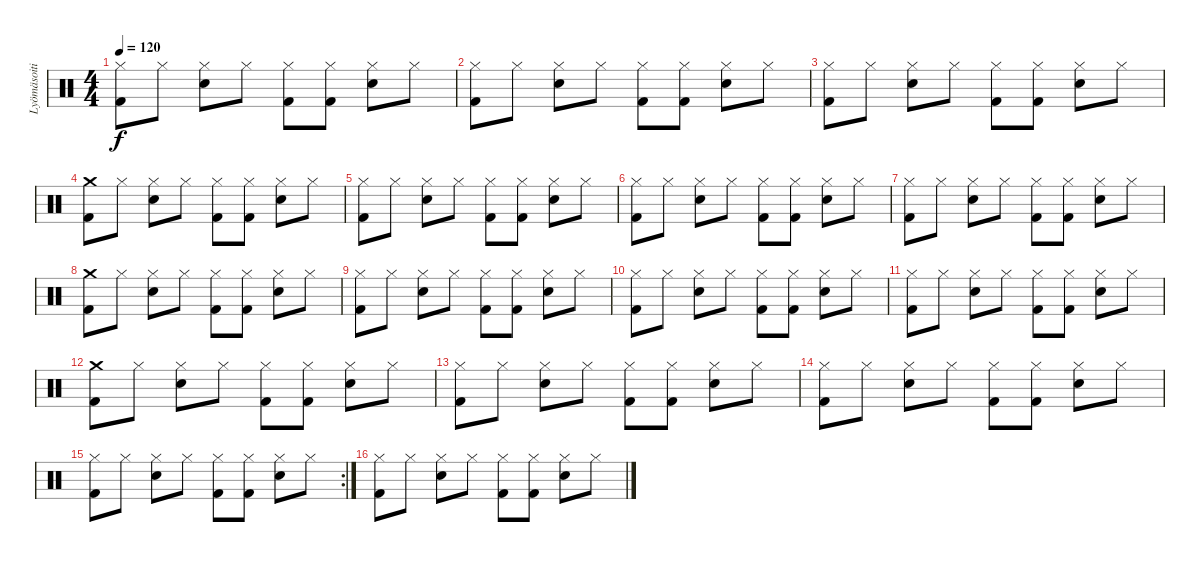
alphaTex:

\track ("Lyömäsoitin" "Lyömäsoiti") {instrument percussion}
\staff {score}
\articulation defaults
\ts (4 4)
\tempo 120
\clef neutral
\ks c
("Hi-Hat (closed)" "Kick (hit) 2").8{dy f} "Hi-Hat (closed)".8 ("Hi-Hat (closed)" "Electric Snare (hit)").8 "Hi-Hat (closed)".8 ("Hi-Hat (closed)" "Kick (hit) 2").8 ("Hi-Hat (closed)" "Kick (hit) 2").8 ("Hi-Hat (closed)" "Electric Snare (hit)").8 "Hi-Hat (closed)".8 |
("Hi-Hat (closed)" "Kick (hit) 2").8 "Hi-Hat (closed)".8 ("Hi-Hat (closed)" "Electric Snare (hit)").8 "Hi-Hat (closed)".8 ("Hi-Hat (closed)" "Kick (hit) 2").8 ("Hi-Hat (closed)" "Kick (hit) 2").8 ("Hi-Hat (closed)" "Electric Snare (hit)").8 "Hi-Hat (closed)".8 |
("Hi-Hat (closed)" "Kick (hit) 2").8 "Hi-Hat (closed)".8 ("Hi-Hat (closed)" "Electric Snare (hit)").8 "Hi-Hat (closed)".8 ("Hi-Hat (closed)" "Kick (hit) 2").8 ("Hi-Hat (closed)" "Kick (hit) 2").8 ("Hi-Hat (closed)" "Electric Snare (hit)").8 "Hi-Hat (closed)".8 |
("Crash medium (hit)" "Kick (hit) 2").8 "Hi-Hat (closed)".8 ("Hi-Hat (closed)" "Electric Snare (hit)").8 "Hi-Hat (closed)".8 ("Hi-Hat (closed)" "Kick (hit) 2").8 ("Hi-Hat (closed)" "Kick (hit) 2").8 ("Hi-Hat (closed)" "Electric Snare (hit)").8 "Hi-Hat (closed)".8 |
("Hi-Hat (closed)" "Kick (hit) 2").8 "Hi-Hat (closed)".8 ("Hi-Hat (closed)" "Electric Snare (hit)").8 "Hi-Hat (closed)".8 ("Hi-Hat (closed)" "Kick (hit) 2").8 ("Hi-Hat (closed)" "Kick (hit) 2").8 ("Hi-Hat (closed)" "Electric Snare (hit)").8 "Hi-Hat (closed)".8 |
("Hi-Hat (closed)" "Kick (hit) 2").8 "Hi-Hat (closed)".8 ("Hi-Hat (closed)" "Electric Snare (hit)").8 "Hi-Hat (closed)".8 ("Hi-Hat (closed)" "Kick (hit) 2").8 ("Hi-Hat (closed)" "Kick (hit) 2").8 ("Hi-Hat (closed)" "Electric Snare (hit)").8 "Hi-Hat (closed)".8 |
("Hi-Hat (closed)" "Kick (hit) 2").8 "Hi-Hat (closed)".8 ("Hi-Hat (closed)" "Electric Snare (hit)").8 "Hi-Hat (closed)".8 ("Hi-Hat (closed)" "Kick (hit) 2").8 ("Hi-Hat (closed)" "Kick (hit) 2").8 ("Hi-Hat (closed)" "Electric Snare (hit)").8 "Hi-Hat (closed)".8 |
("Crash medium (hit)" "Kick (hit) 2").8 "Hi-Hat (closed)".8 ("Hi-Hat (closed)" "Electric Snare (hit)").8 "Hi-Hat (closed)".8 ("Hi-Hat (closed)" "Kick (hit) 2").8 ("Hi-Hat (closed)" "Kick (hit) 2").8 ("Hi-Hat (closed)" "Electric Snare (hit)").8 "Hi-Hat (closed)".8 |
("Hi-Hat (closed)" "Kick (hit) 2").8 "Hi-Hat (closed)".8 ("Hi-Hat (closed)" "Electric Snare (hit)").8 "Hi-Hat (closed)".8 ("Hi-Hat (closed)" "Kick (hit) 2").8 ("Hi-Hat (closed)" "Kick (hit) 2").8 ("Hi-Hat (closed)" "Electric Snare (hit)").8 "Hi-Hat (closed)".8 |
("Hi-Hat (closed)" "Kick (hit) 2").8 "Hi-Hat (closed)".8 ("Hi-Hat (closed)" "Electric Snare (hit)").8 "Hi-Hat (closed)".8 ("Hi-Hat (closed)" "Kick (hit) 2").8 ("Hi-Hat (closed)" "Kick (hit) 2").8 ("Hi-Hat (closed)" "Electric Snare (hit)").8 "Hi-Hat (closed)".8 |
("Hi-Hat (closed)" "Kick (hit) 2").8 "Hi-Hat (closed)".8 ("Hi-Hat (closed)" "Electric Snare (hit)").8 "Hi-Hat (closed)".8 ("Hi-Hat (closed)" "Kick (hit) 2").8 ("Hi-Hat (closed)" "Kick (hit) 2").8 ("Hi-Hat (closed)" "Electric Snare (hit)").8 "Hi-Hat (closed)".8 |
("Crash medium (hit)" "Kick (hit) 2").8 "Hi-Hat (closed)".8 ("Hi-Hat (closed)" "Electric Snare (hit)").8 "Hi-Hat (closed)".8 ("Hi-Hat (closed)" "Kick (hit) 2").8 ("Hi-Hat (closed)" "Kick (hit) 2").8 ("Hi-Hat (closed)" "Electric Snare (hit)").8 "Hi-Hat (closed)".8 |
("Hi-Hat (closed)" "Kick (hit) 2").8 "Hi-Hat (closed)".8 ("Hi-Hat (closed)" "Electric Snare (hit)").8 "Hi-Hat (closed)".8 ("Hi-Hat (closed)" "Kick (hit) 2").8 ("Hi-Hat (closed)" "Kick (hit) 2").8 ("Hi-Hat (closed)" "Electric Snare (hit)").8 "Hi-Hat (closed)".8 |
("Hi-Hat (closed)" "Kick (hit) 2").8 "Hi-Hat (closed)".8 ("Hi-Hat (closed)" "Electric Snare (hit)").8 "Hi-Hat (closed)".8 ("Hi-Hat (closed)" "Kick (hit) 2").8 ("Hi-Hat (closed)" "Kick (hit) 2").8 ("Hi-Hat (closed)" "Electric Snare (hit)").8 "Hi-Hat (closed)".8 |
\rc 2
("Hi-Hat (closed)" "Kick (hit) 2").8 "Hi-Hat (closed)".8 ("Hi-Hat (closed)" "Electric Snare (hit)").8 "Hi-Hat (closed)".8 ("Hi-Hat (closed)" "Kick (hit) 2").8 ("Hi-Hat (closed)" "Kick (hit) 2").8 ("Hi-Hat (closed)" "Electric Snare (hit)").8 "Hi-Hat (closed)".8 |
("Hi-Hat (closed)" "Kick (hit) 2").8 "Hi-Hat (closed)".8 ("Hi-Hat (closed)" "Electric Snare (hit)").8 "Hi-Hat (closed)".8 ("Hi-Hat (closed)" "Kick (hit) 2").8 ("Hi-Hat (closed)" "Kick (hit) 2").8 ("Hi-Hat (closed)" "Electric Snare (hit)").8 "Hi-Hat (closed)".8
